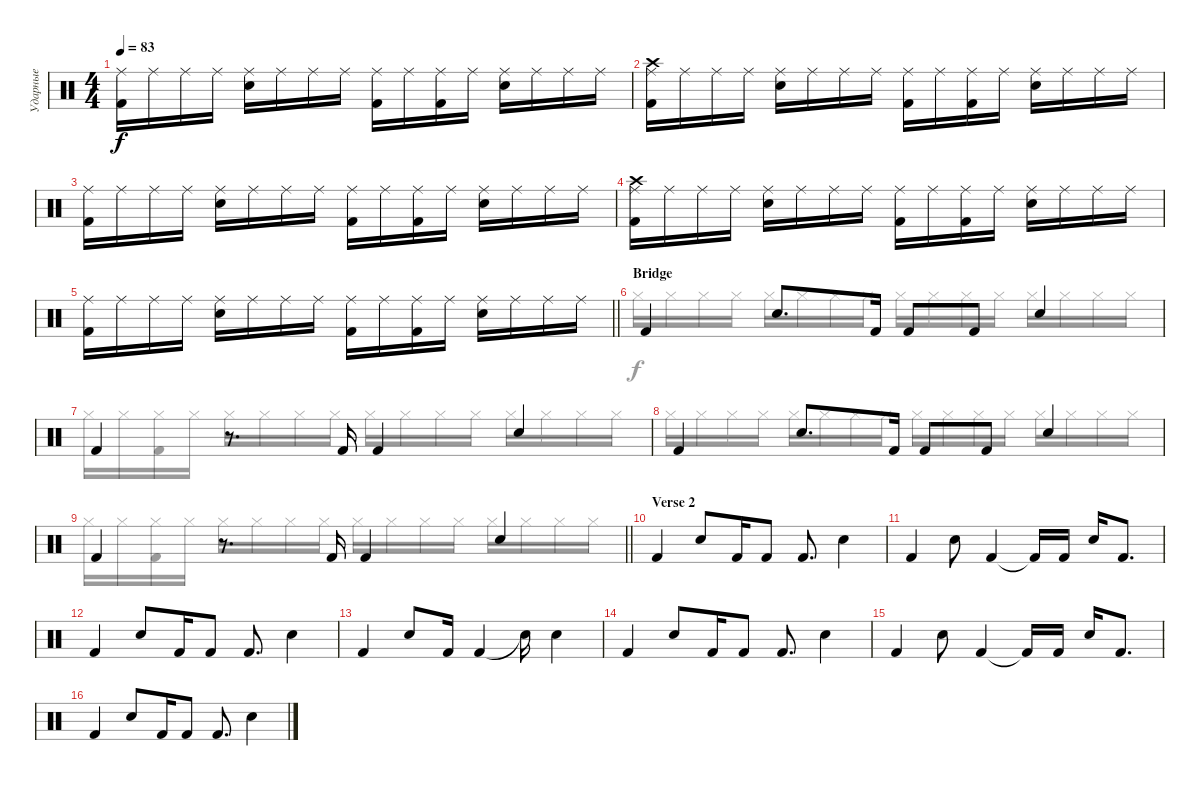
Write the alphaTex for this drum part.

\track ("Ударные" "Ударные") {instrument percussion}
\staff {score}
\articulation defaults
\voice
\ts (4 4)
\tempo 83
\clef neutral
\ks c
("Ride (middle)" "Kick (hit) 2").16{dy f} "Ride (middle)".16 "Ride (middle)".16 "Ride (middle)".16 ("Ride (middle)" "Snare (hit) 2").16 "Ride (middle)".16 "Ride (middle)".16 "Ride (middle)".16 ("Ride (middle)" "Kick (hit) 2").16 "Ride (middle)".16 ("Ride (middle)" "Kick (hit) 2").16 "Ride (middle)".16 ("Ride (middle)" "Snare (hit) 2").16 "Ride (middle)".16 "Ride (middle)".16 "Ride (middle)".16 |
("Ride (middle)" "Crash high (hit)" "Kick (hit) 2").16 "Ride (middle)".16 "Ride (middle)".16 "Ride (middle)".16 ("Ride (middle)" "Snare (hit) 2").16 "Ride (middle)".16 "Ride (middle)".16 "Ride (middle)".16 ("Ride (middle)" "Kick (hit) 2").16 "Ride (middle)".16 ("Ride (middle)" "Kick (hit) 2").16 "Ride (middle)".16 ("Ride (middle)" "Snare (hit) 2").16 "Ride (middle)".16 "Ride (middle)".16 "Ride (middle)".16 |
("Ride (middle)" "Kick (hit) 2").16 "Ride (middle)".16 "Ride (middle)".16 "Ride (middle)".16 ("Ride (middle)" "Snare (hit) 2").16 "Ride (middle)".16 "Ride (middle)".16 "Ride (middle)".16 ("Ride (middle)" "Kick (hit) 2").16 "Ride (middle)".16 ("Ride (middle)" "Kick (hit) 2").16 "Ride (middle)".16 ("Ride (middle)" "Snare (hit) 2").16 "Ride (middle)".16 "Ride (middle)".16 "Ride (middle)".16 |
("Ride (middle)" "Crash high (hit)" "Kick (hit) 2").16 "Ride (middle)".16 "Ride (middle)".16 "Ride (middle)".16 ("Ride (middle)" "Snare (hit) 2").16 "Ride (middle)".16 "Ride (middle)".16 "Ride (middle)".16 ("Ride (middle)" "Kick (hit) 2").16 "Ride (middle)".16 ("Ride (middle)" "Kick (hit) 2").16 "Ride (middle)".16 ("Ride (middle)" "Snare (hit) 2").16 "Ride (middle)".16 "Ride (middle)".16 "Ride (middle)".16 |
\barLineRight lightlight
("Ride (middle)" "Kick (hit) 2").16 "Ride (middle)".16 "Ride (middle)".16 "Ride (middle)".16 ("Ride (middle)" "Snare (hit) 2").16 "Ride (middle)".16 "Ride (middle)".16 "Ride (middle)".16 ("Ride (middle)" "Kick (hit) 2").16 "Ride (middle)".16 ("Ride (middle)" "Kick (hit) 2").16 "Ride (middle)".16 ("Ride (middle)" "Snare (hit) 2").16 "Ride (middle)".16 "Ride (middle)".16 "Ride (middle)".16 |
\section ("" "Bridge")
"Kick (hit) 2".4 "Snare (hit) 2".8{d} "Kick (hit) 2".16 "Kick (hit) 2".8 "Kick (hit) 2".8 "Snare (hit) 2".4 |
"Kick (hit) 2".4 r.8{d} "Kick (hit) 2".16 "Kick (hit) 2".4 "Snare (hit) 2".4 |
"Kick (hit) 2".4 "Snare (hit) 2".8{d} "Kick (hit) 2".16 "Kick (hit) 2".8 "Kick (hit) 2".8 "Snare (hit) 2".4 |
\barLineRight lightlight "Kick (hit) 2".4
r.8{d} "Kick (hit) 2".16 "Kick (hit) 2".4 "Snare (hit) 2".4 |
\section ("" "Verse 2")
"Kick (hit) 2".4 "Snare (hit) 2".8 "Kick (hit) 2".16 "Kick (hit) 2".8 "Kick (hit) 2".8{d} "Snare (hit) 2".4 |
"Kick (hit) 2".4 "Snare (hit) 2".8 "Kick (hit) 2".4 "Kick (hit) 2"{t}.16 "Kick (hit) 2".16 "Snare (hit) 2".16 "Kick (hit) 2".8{d} |
"Kick (hit) 2".4 "Snare (hit) 2".8 "Kick (hit) 2".16 "Kick (hit) 2".8 "Kick (hit) 2".8{d} "Snare (hit) 2".4 |
"Kick (hit) 2".4 "Snare (hit) 2".8 "Kick (hit) 2".16 "Kick (hit) 2".4 "Snare (hit)"{t}.16 "Snare (hit) 2".4 |
"Kick (hit) 2".4 "Snare (hit) 2".8 "Kick (hit) 2".16 "Kick (hit) 2".8 "Kick (hit) 2".8{d} "Snare (hit) 2".4 |
"Kick (hit) 2".4 "Snare (hit) 2".8 "Kick (hit) 2".4 "Kick (hit) 2"{t}.16 "Kick (hit) 2".16 "Snare (hit) 2".16 "Kick (hit) 2".8{d} |
"Kick (hit) 2".4 "Snare (hit) 2".8 "Kick (hit) 2".16 "Kick (hit) 2".8 "Kick (hit) 2".8{d} "Snare (hit) 2".4
\voice
\clef neutral
\ottava regular
\simile none
\ks c
|
|
|
|
\barLineRight lightlight
|
"Hi-Hat (closed)".16 "Hi-Hat (closed)".16 "Hi-Hat (closed)".16 "Hi-Hat (closed)".16 "Hi-Hat (closed)".16 "Hi-Hat (closed)".16 "Hi-Hat (closed)".16 "Hi-Hat (closed)".16 "Hi-Hat (closed)".16 "Hi-Hat (closed)".16 "Hi-Hat (closed)".16 "Hi-Hat (closed)".16 "Hi-Hat (closed)".16 "Hi-Hat (closed)".16 "Hi-Hat (closed)".16 "Hi-Hat (closed)".16 |
"Hi-Hat (closed)".16 "Hi-Hat (closed)".16 ("Hi-Hat (closed)" "Kick (hit) 2").16 "Hi-Hat (closed)".16 "Hi-Hat (closed)".16 "Hi-Hat (closed)".16 "Hi-Hat (closed)".16 "Hi-Hat (closed)".16 "Hi-Hat (closed)".16 "Hi-Hat (closed)".16 "Hi-Hat (closed)".16 "Hi-Hat (closed)".16 "Hi-Hat (closed)".16 "Hi-Hat (closed)".16 "Hi-Hat (closed)".16 "Hi-Hat (closed)".16 |
"Hi-Hat (closed)".16 "Hi-Hat (closed)".16 "Hi-Hat (closed)".16 "Hi-Hat (closed)".16 "Hi-Hat (closed)".16 "Hi-Hat (closed)".16 "Hi-Hat (closed)".16 "Hi-Hat (closed)".16 "Hi-Hat (closed)".16 "Hi-Hat (closed)".16 "Hi-Hat (closed)".16 "Hi-Hat (closed)".16 "Hi-Hat (closed)".16 "Hi-Hat (closed)".16 "Hi-Hat (closed)".16 "Hi-Hat (closed)".16 |
\barLineRight lightlight "Hi-Hat (closed)".16 "Hi-Hat (closed)".16
("Hi-Hat (closed)" "Kick (hit) 2").16 "Hi-Hat (closed)".16 "Hi-Hat (closed)".16 "Hi-Hat (closed)".16 "Hi-Hat (closed)".16 "Hi-Hat (closed)".16 "Hi-Hat (closed)".16 "Hi-Hat (closed)".16 "Hi-Hat (closed)".16 "Hi-Hat (closed)".16 "Hi-Hat (closed)".16 "Hi-Hat (closed)".16 "Hi-Hat (closed)".16 "Hi-Hat (closed)".16 |
|
|
|
|
|
|
